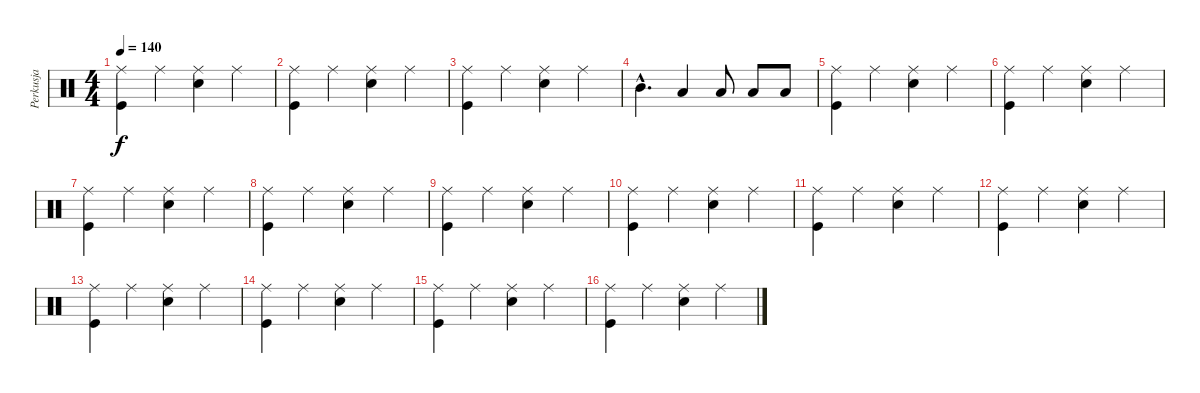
\track ("Perkusja" "Perkusja") {instrument percussion}
\staff {score}
\articulation defaults
\ts (4 4)
\tempo 140
\clef neutral
\ks c
("Ride (middle)" "Kick (hit)").4{dy f} "Ride (middle)".4 ("Ride (middle)" "Snare (hit) 2").4 "Ride (middle)".4 |
("Ride (middle)" "Kick (hit)").4 "Ride (middle)".4 ("Ride (middle)" "Snare (hit) 2").4 "Ride (middle)".4 |
("Ride (middle)" "Kick (hit)").4 "Ride (middle)".4 ("Ride (middle)" "Snare (hit) 2").4 "Ride (middle)".4 |
"Mid Tom (hit)"{hac}.4{d} "Low Tom (hit)".4 "Low Tom (hit)".8 "Low Tom (hit)".8 "Low Floor Tom (hit)".8 |
("Ride (middle)" "Kick (hit)").4 "Ride (middle)".4 ("Ride (middle)" "Snare (hit) 2").4 "Ride (middle)".4 |
("Ride (middle)" "Kick (hit)").4 "Ride (middle)".4 ("Ride (middle)" "Snare (hit) 2").4 "Ride (middle)".4 |
("Ride (middle)" "Kick (hit)").4 "Ride (middle)".4 ("Ride (middle)" "Snare (hit) 2").4 "Ride (middle)".4 |
("Ride (middle)" "Kick (hit)").4 "Ride (middle)".4 ("Ride (middle)" "Snare (hit) 2").4 "Ride (middle)".4 |
("Ride (middle)" "Kick (hit)").4 "Ride (middle)".4 ("Ride (middle)" "Snare (hit) 2").4 "Ride (middle)".4 |
("Ride (middle)" "Kick (hit)").4 "Ride (middle)".4 ("Ride (middle)" "Snare (hit) 2").4 "Ride (middle)".4 |
("Ride (middle)" "Kick (hit)").4 "Ride (middle)".4 ("Ride (middle)" "Snare (hit) 2").4 "Ride (middle)".4 |
("Ride (middle)" "Kick (hit)").4 "Ride (middle)".4 ("Ride (middle)" "Snare (hit) 2").4 "Ride (middle)".4 |
("Ride (middle)" "Kick (hit)").4 "Ride (middle)".4 ("Ride (middle)" "Snare (hit) 2").4 "Ride (middle)".4 |
("Ride (middle)" "Kick (hit)").4 "Ride (middle)".4 ("Ride (middle)" "Snare (hit) 2").4 "Ride (middle)".4 |
("Ride (middle)" "Kick (hit)").4 "Ride (middle)".4 ("Ride (middle)" "Snare (hit) 2").4 "Ride (middle)".4 |
("Ride (middle)" "Kick (hit)").4 "Ride (middle)".4 ("Ride (middle)" "Snare (hit) 2").4 "Ride (middle)".4
